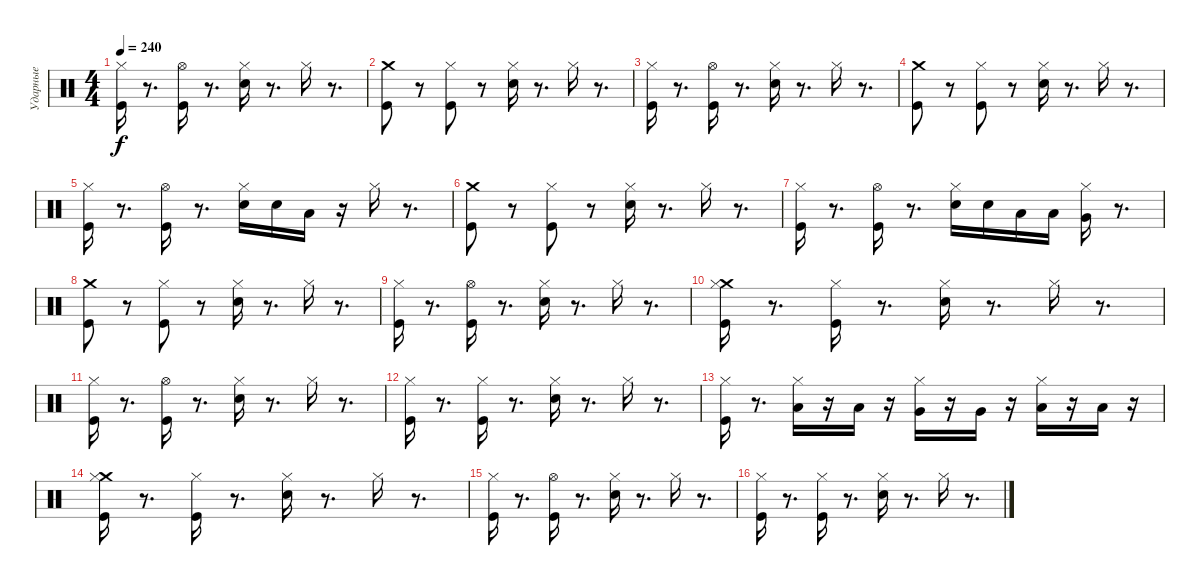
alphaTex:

\track ("Ударные" "Ударные") {instrument percussion}
\staff {score}
\articulation defaults
\ts (4 4)
\tempo 240
\clef neutral
\ks c
("Kick (hit)" "Hi-Hat (closed)").16{dy f} r.8{d} ("Kick (hit)" "Hi-Hat (open)").16 r.8{d} ("Snare (hit) 2" "Hi-Hat (closed)").16 r.8{d} "Hi-Hat (closed)".16 r.8{d} |
("Crash medium (hit)" "Kick (hit)").8 r.8 ("Kick (hit)" "Hi-Hat (closed)").8 r.8 ("Snare (hit) 2" "Hi-Hat (closed)").16 r.8{d} "Hi-Hat (closed)".16 r.8{d} |
("Kick (hit)" "Hi-Hat (closed)").16 r.8{d} ("Kick (hit)" "Hi-Hat (open)").16 r.8{d} ("Snare (hit) 2" "Hi-Hat (closed)").16 r.8{d} "Hi-Hat (closed)".16 r.8{d} |
("Crash medium (hit)" "Kick (hit)").8 r.8 ("Kick (hit)" "Hi-Hat (closed)").8 r.8 ("Snare (hit) 2" "Hi-Hat (closed)").16 r.8{d} "Hi-Hat (closed)".16 r.8{d} |
("Kick (hit)" "Hi-Hat (closed)").16 r.8{d} ("Kick (hit)" "Hi-Hat (open)").16 r.8{d} ("Snare (hit) 2" "Hi-Hat (closed)").16 "Snare (hit) 2".16 "Low Tom (hit)".16 r.16 "Hi-Hat (closed)".16 r.8{d} |
("Crash medium (hit)" "Kick (hit)").8 r.8 ("Kick (hit)" "Hi-Hat (closed)").8 r.8 ("Snare (hit) 2" "Hi-Hat (closed)").16 r.8{d} "Hi-Hat (closed)".16 r.8{d} |
("Kick (hit)" "Hi-Hat (closed)").16 r.8{d} ("Kick (hit)" "Hi-Hat (open)").16 r.8{d} ("Snare (hit) 2" "Hi-Hat (closed)").16 "Snare (hit) 2".16 "Low Tom (hit)".16 "Low Tom (hit)".16 ("Very Low Tom (hit)" "Hi-Hat (closed)").16 r.8{d} |
("Crash medium (hit)" "Kick (hit)").8 r.8 ("Kick (hit)" "Hi-Hat (closed)").8 r.8 ("Snare (hit) 2" "Hi-Hat (closed)").16 r.8{d} "Hi-Hat (closed)".16 r.8{d} |
("Kick (hit)" "Hi-Hat (closed)").16 r.8{d} ("Kick (hit)" "Hi-Hat (open)").16 r.8{d} ("Snare (hit) 2" "Hi-Hat (closed)").16 r.8{d} "Hi-Hat (closed)".16 r.8{d} |
("Kick (hit)" "Crash medium (hit)" "Hi-Hat (closed)").16 r.8{d} ("Kick (hit)" "Hi-Hat (closed)").16 r.8{d} ("Snare (hit) 2" "Hi-Hat (closed)").16 r.8{d} "Hi-Hat (closed)".16 r.8{d} |
("Kick (hit)" "Hi-Hat (closed)").16 r.8{d} ("Kick (hit)" "Hi-Hat (open)").16 r.8{d} ("Snare (hit) 2" "Hi-Hat (closed)").16 r.8{d} "Hi-Hat (closed)".16 r.8{d} |
("Kick (hit)" "Hi-Hat (closed)").16 r.8{d} ("Kick (hit)" "Hi-Hat (closed)").16 r.8{d} ("Snare (hit) 2" "Hi-Hat (closed)").16 r.8{d} "Hi-Hat (closed)".16 r.8{d} |
("Kick (hit)" "Hi-Hat (closed)").16 r.8{d} ("Low Floor Tom (hit)" "Hi-Hat (closed)").16 r.16 "Low Floor Tom (hit)".16 r.16 ("Very Low Tom (hit)" "Hi-Hat (closed)").16 r.16 "Very Low Tom (hit)".16 r.16 ("Low Tom (hit)" "Hi-Hat (closed)").16 r.16 "Low Tom (hit)".16 r.16 |
("Kick (hit)" "Crash medium (hit)" "Hi-Hat (closed)").16 r.8{d} ("Kick (hit)" "Hi-Hat (closed)").16 r.8{d} ("Snare (hit) 2" "Hi-Hat (closed)").16 r.8{d} "Hi-Hat (closed)".16 r.8{d} |
("Kick (hit)" "Hi-Hat (closed)").16 r.8{d} ("Kick (hit)" "Hi-Hat (open)").16 r.8{d} ("Snare (hit) 2" "Hi-Hat (closed)").16 r.8{d} "Hi-Hat (closed)".16 r.8{d} |
("Kick (hit)" "Hi-Hat (closed)").16 r.8{d} ("Kick (hit)" "Hi-Hat (closed)").16 r.8{d} ("Snare (hit) 2" "Hi-Hat (closed)").16 r.8{d} "Hi-Hat (closed)".16 r.8{d}
